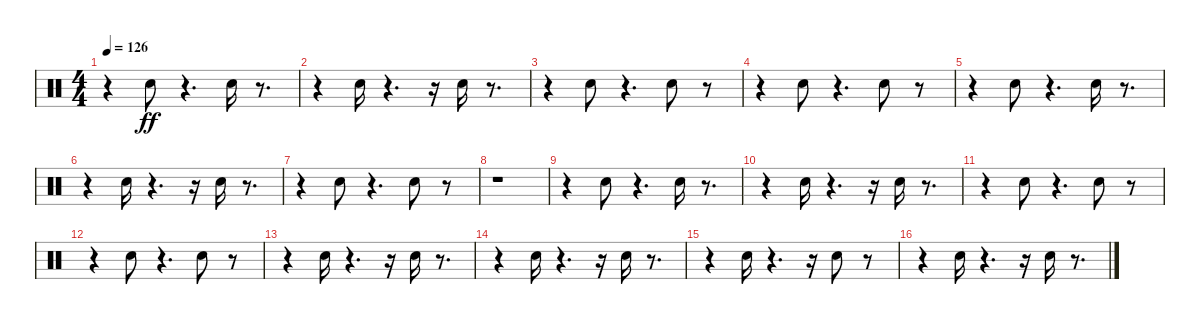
\track "" {instrument percussion}
\staff {score}
\articulation defaults
\ts (4 4)
\tempo 126
\clef neutral
\ks c
r.4{dy ff} "Snare (hit) 2".8 r.4{d} "Snare (hit) 2".16 r.8{d} |
r.4 "Snare (hit) 2".16 r.4{d} r.16 "Snare (hit) 2".16 r.8{d} |
r.4 "Snare (hit) 2".8 r.4{d} "Snare (hit) 2".8 r.8 |
r.4 "Snare (hit) 2".8 r.4{d} "Snare (hit) 2".8 r.8 |
r.4 "Snare (hit) 2".8 r.4{d} "Snare (hit) 2".16 r.8{d} |
r.4 "Snare (hit) 2".16 r.4{d} r.16 "Snare (hit) 2".16 r.8{d} |
r.4 "Snare (hit) 2".8 r.4{d} "Snare (hit) 2".8 r.8 |
r.1 |
r.4 "Snare (hit) 2".8 r.4{d} "Snare (hit) 2".16 r.8{d} |
r.4 "Snare (hit) 2".16 r.4{d} r.16 "Snare (hit) 2".16 r.8{d} |
r.4 "Snare (hit) 2".8 r.4{d} "Snare (hit) 2".8 r.8 |
r.4 "Snare (hit) 2".8 r.4{d} "Snare (hit) 2".8 r.8 |
r.4 "Snare (hit) 2".16 r.4{d} r.16 "Snare (hit) 2".16 r.8{d} |
r.4 "Snare (hit) 2".16 r.4{d} r.16 "Snare (hit) 2".16 r.8{d} |
r.4 "Snare (hit) 2".16 r.4{d} r.16 "Snare (hit) 2".8 r.8 |
r.4 "Snare (hit) 2".16 r.4{d} r.16 "Snare (hit) 2".16 r.8{d}
